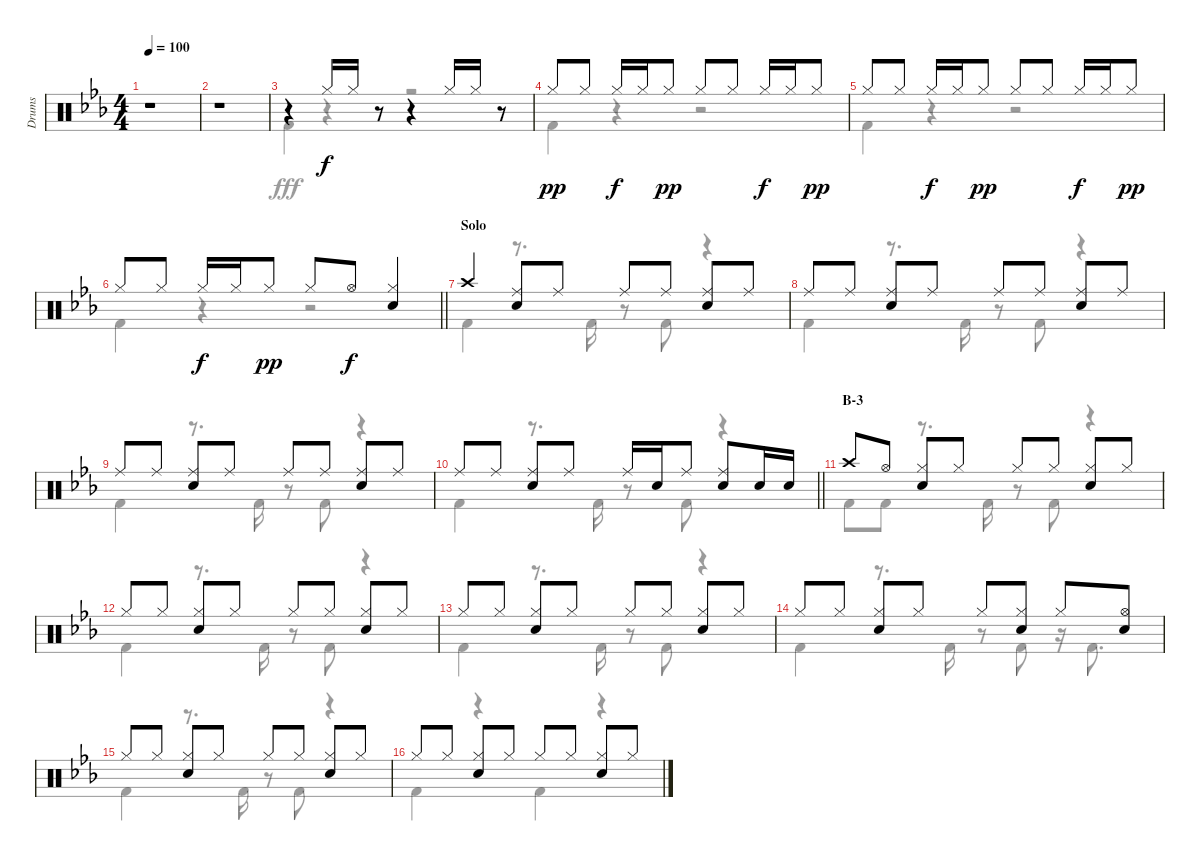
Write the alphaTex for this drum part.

\track ("Drums" "Drums") {instrument percussion}
\staff {score}
\articulation defaults
\voice
\ts (4 4)
\tempo 100
\clef neutral
\ks eb
r.1{dy f} |
r.1 |
r.4 "Hi-Hat (closed)".16 "Hi-Hat (closed)".16 r.8 r.4 "Hi-Hat (closed)".16 "Hi-Hat (closed)".16 r.8 |
"Hi-Hat (closed)".8{dy pp} "Hi-Hat (closed)".8 "Hi-Hat (closed)".16{dy f} "Hi-Hat (closed)".16 "Hi-Hat (closed)".8{dy pp} "Hi-Hat (closed)".8 "Hi-Hat (closed)".8 "Hi-Hat (closed)".16{dy f} "Hi-Hat (closed)".16 "Hi-Hat (closed)".8{dy pp} |
"Hi-Hat (closed)".8 "Hi-Hat (closed)".8 "Hi-Hat (closed)".16{dy f} "Hi-Hat (closed)".16 "Hi-Hat (closed)".8{dy pp} "Hi-Hat (closed)".8 "Hi-Hat (closed)".8 "Hi-Hat (closed)".16{dy f} "Hi-Hat (closed)".16 "Hi-Hat (closed)".8{dy pp} |
\barLineRight lightlight "Hi-Hat (closed)".8 "Hi-Hat (closed)".8 "Hi-Hat (closed)".16{dy f} "Hi-Hat (closed)".16 "Hi-Hat (closed)".8{dy pp} "Hi-Hat (closed)".8 "Hi-Hat (open)".8{dy f}
("Hi-Hat (closed)" "Snare (hit) 2").4 |
\section ("" "Solo")
"Crash high (hit)".4 ("Ride (middle)" "Snare (hit) 2").8 "Ride (middle)".8 "Ride (middle)".8 "Ride (middle)".8 ("Ride (middle)" "Snare (hit) 2").8 "Ride (middle)".8 |
"Ride (middle)".8 "Ride (middle)".8 ("Ride (middle)" "Snare (hit) 2").8 "Ride (middle)".8 "Ride (middle)".8 "Ride (middle)".8 ("Ride (middle)" "Snare (hit) 2").8 "Ride (middle)".8 |
"Ride (middle)".8 "Ride (middle)".8 ("Ride (middle)" "Snare (hit) 2").8 "Ride (middle)".8 "Ride (middle)".8 "Ride (middle)".8 ("Ride (middle)" "Snare (hit) 2").8 "Ride (middle)".8 |
\barLineRight lightlight "Ride (middle)".8 "Ride (middle)".8
("Ride (middle)" "Snare (hit) 2").8 "Ride (middle)".8 "Ride (middle)".16 "Snare (hit) 2".16 "Ride (middle)".8 ("Ride (middle)" "Snare (hit) 2").8 "Snare (hit) 2".16 "Snare (hit) 2".16 |
\section ("" "B-3")
"Crash high (hit)".8 "Hi-Hat (open)".8 ("Hi-Hat (closed)" "Snare (hit) 2").8 "Hi-Hat (closed)".8 "Hi-Hat (closed)".8 "Hi-Hat (closed)".8 ("Hi-Hat (closed)" "Snare (hit) 2").8 "Hi-Hat (closed)".8 |
"Hi-Hat (closed)".8 "Hi-Hat (closed)".8 ("Hi-Hat (closed)" "Snare (hit) 2").8 "Hi-Hat (closed)".8 "Hi-Hat (closed)".8 "Hi-Hat (closed)".8 ("Hi-Hat (closed)" "Snare (hit) 2").8 "Hi-Hat (closed)".8 |
"Hi-Hat (closed)".8 "Hi-Hat (closed)".8 ("Hi-Hat (closed)" "Snare (hit) 2").8 "Hi-Hat (closed)".8 "Hi-Hat (closed)".8 "Hi-Hat (closed)".8 ("Hi-Hat (closed)" "Snare (hit) 2").8 "Hi-Hat (closed)".8 |
"Hi-Hat (closed)".8 "Hi-Hat (closed)".8 ("Hi-Hat (closed)" "Snare (hit) 2").8 "Hi-Hat (closed)".8 "Hi-Hat (closed)".8 ("Hi-Hat (closed)" "Snare (hit) 2").8 "Hi-Hat (closed)".8 ("Hi-Hat (open)" "Snare (hit) 2").8 |
"Hi-Hat (closed)".8 "Hi-Hat (closed)".8 ("Hi-Hat (closed)" "Snare (hit) 2").8 "Hi-Hat (closed)".8 "Hi-Hat (closed)".8 "Hi-Hat (closed)".8 ("Hi-Hat (closed)" "Snare (hit) 2").8 "Hi-Hat (closed)".8 |
"Hi-Hat (closed)".8 "Hi-Hat (closed)".8 ("Hi-Hat (closed)" "Snare (hit) 2").8 "Hi-Hat (closed)".8 "Hi-Hat (closed)".8 "Hi-Hat (closed)".8 ("Hi-Hat (closed)" "Snare (hit) 2").8 "Hi-Hat (closed)".8
\voice
\clef neutral
\ottava regular
\simile none
\ks eb
r.1{dy fff} |
r.1 |
"Kick (hit) 2".4 r.4 r.2 |
"Kick (hit) 2".4 r.4 r.2 |
"Kick (hit) 2".4 r.4 r.2 |
\barLineRight lightlight "Kick (hit) 2".4
r.4 r.2 |
"Kick (hit) 2".4 r.8{d} "Kick (hit) 2".16 r.8 "Kick (hit) 2".8 r.4 |
"Kick (hit) 2".4 r.8{d} "Kick (hit) 2".16 r.8 "Kick (hit) 2".8 r.4 |
"Kick (hit) 2".4 r.8{d} "Kick (hit) 2".16 r.8 "Kick (hit) 2".8 r.4 |
\barLineRight lightlight "Kick (hit) 2".4
r.8{d} "Kick (hit) 2".16 r.8 "Kick (hit) 2".8 r.4 |
"Kick (hit) 2".8 "Kick (hit) 2".8 r.8{d} "Kick (hit) 2".16 r.8 "Kick (hit) 2".8 r.4 |
"Kick (hit) 2".4 r.8{d} "Kick (hit) 2".16 r.8 "Kick (hit) 2".8 r.4 |
"Kick (hit) 2".4 r.8{d} "Kick (hit) 2".16 r.8 "Kick (hit) 2".8 r.4 |
"Kick (hit) 2".4 r.8{d} "Kick (hit) 2".16 r.8 "Kick (hit) 2".8 r.16 "Kick (hit) 2".8{d} |
"Kick (hit) 2".4 r.8{d} "Kick (hit) 2".16 r.8 "Kick (hit) 2".8 r.4 |
"Kick (hit) 2".4 r.4 "Kick (hit) 2".4 r.4
